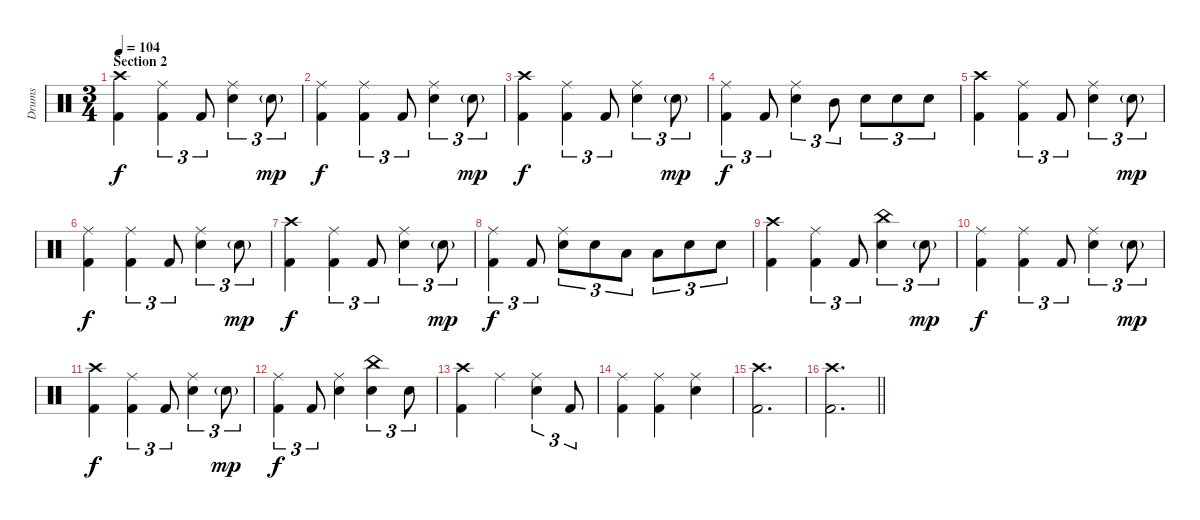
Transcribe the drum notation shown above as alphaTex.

\track ("Drums" "Drums") {instrument percussion}
\staff {score}
\articulation defaults
\ts (3 4)
\section ("" "Section 2")
\tempo 104
\clef neutral
\ks c
("Crash high (hit)" "Kick (hit) 2").4{dy f} ("Ride (middle)" "Kick (hit) 2").4{tu (3 2)} "Kick (hit) 2".8{tu (3 2)} ("Ride (middle)" "Snare (hit) 2").4{tu (3 2)} "Snare (hit) 2"{g}.8{tu (3 2) dy mp} |
("Ride (middle)" "Kick (hit) 2").4{dy f} ("Ride (middle)" "Kick (hit) 2").4{tu (3 2)} "Kick (hit) 2".8{tu (3 2)} ("Ride (middle)" "Snare (hit) 2").4{tu (3 2)} "Snare (hit) 2"{g}.8{tu (3 2) dy mp} |
("Crash high (hit)" "Kick (hit) 2").4{dy f} ("Ride (middle)" "Kick (hit) 2").4{tu (3 2)} "Kick (hit) 2".8{tu (3 2)} ("Ride (middle)" "Snare (hit) 2").4{tu (3 2)} "Snare (hit) 2"{g}.8{tu (3 2) dy mp} |
("Ride (middle)" "Kick (hit) 2").4{tu (3 2) dy f} "Kick (hit) 2".8{tu (3 2)} ("Ride (middle)" "Snare (hit) 2").4{tu (3 2)} "Mid Tom (hit)".8{tu (3 2)} "Snare (hit) 2".8{tu (3 2)} "Snare (hit) 2".8{tu (3 2)} "Snare (hit) 2".8{tu (3 2)} |
("Crash high (hit)" "Kick (hit) 2").4 ("Ride (middle)" "Kick (hit) 2").4{tu (3 2)} "Kick (hit) 2".8{tu (3 2)} ("Ride (middle)" "Snare (hit) 2").4{tu (3 2)} "Snare (hit) 2"{g}.8{tu (3 2) dy mp} |
("Ride (middle)" "Kick (hit) 2").4{dy f} ("Ride (middle)" "Kick (hit) 2").4{tu (3 2)} "Kick (hit) 2".8{tu (3 2)} ("Ride (middle)" "Snare (hit) 2").4{tu (3 2)} "Snare (hit) 2"{g}.8{tu (3 2) dy mp} |
("Crash high (hit)" "Kick (hit) 2").4{dy f} ("Ride (middle)" "Kick (hit) 2").4{tu (3 2)} "Kick (hit) 2".8{tu (3 2)} ("Ride (middle)" "Snare (hit) 2").4{tu (3 2)} "Snare (hit) 2"{g}.8{tu (3 2) dy mp} |
("Ride (middle)" "Kick (hit) 2").4{tu (3 2) dy f} "Kick (hit) 2".8{tu (3 2)} ("Ride (middle)" "Snare (hit) 2").8{tu (3 2)} "Snare (hit) 2".8{tu (3 2)} "Low Tom (hit)".8{tu (3 2)} "Low Tom (hit)".8{tu (3 2)} "Snare (hit) 2".8{tu (3 2)} "Snare (hit) 2".8{tu (3 2)} |
("Crash high (hit)" "Kick (hit) 2").4 ("Ride (middle)" "Kick (hit) 2").4{tu (3 2)} "Kick (hit) 2".8{tu (3 2)} ("China (hit)" "Snare (hit) 2").4{tu (3 2)} "Snare (hit) 2"{g}.8{tu (3 2) dy mp} |
("Ride (middle)" "Kick (hit) 2").4{dy f} ("Ride (middle)" "Kick (hit) 2").4{tu (3 2)} "Kick (hit) 2".8{tu (3 2)} ("Ride (middle)" "Snare (hit) 2").4{tu (3 2)} "Snare (hit) 2"{g}.8{tu (3 2) dy mp} |
("Crash high (hit)" "Kick (hit) 2").4{dy f} ("Ride (middle)" "Kick (hit) 2").4{tu (3 2)} "Kick (hit) 2".8{tu (3 2)} ("Ride (middle)" "Snare (hit) 2").4{tu (3 2)} "Snare (hit) 2"{g}.8{tu (3 2) dy mp} |
("Ride (middle)" "Kick (hit) 2").4{tu (3 2) dy f} "Kick (hit) 2".8{tu (3 2)} ("Ride (middle)" "Snare (hit) 2").4 ("China (hit)" "Snare (hit) 2").4{tu (3 2)} "Snare (hit) 2".8{tu (3 2)} |
("Crash high (hit)" "Kick (hit) 2").4 "Ride (middle)".4 ("Ride (middle)" "Snare (hit) 2").4{tu (3 2)} "Kick (hit) 2".8{tu (3 2)} |
("Ride (middle)" "Kick (hit) 2").4 ("Ride (middle)" "Kick (hit) 2").4 ("Ride (middle)" "Snare (hit) 2").4 |
("Crash high (hit)" "Kick (hit) 2").2{d} |
\barLineRight lightlight
("Crash high (hit)" "Kick (hit) 2").2{d}
